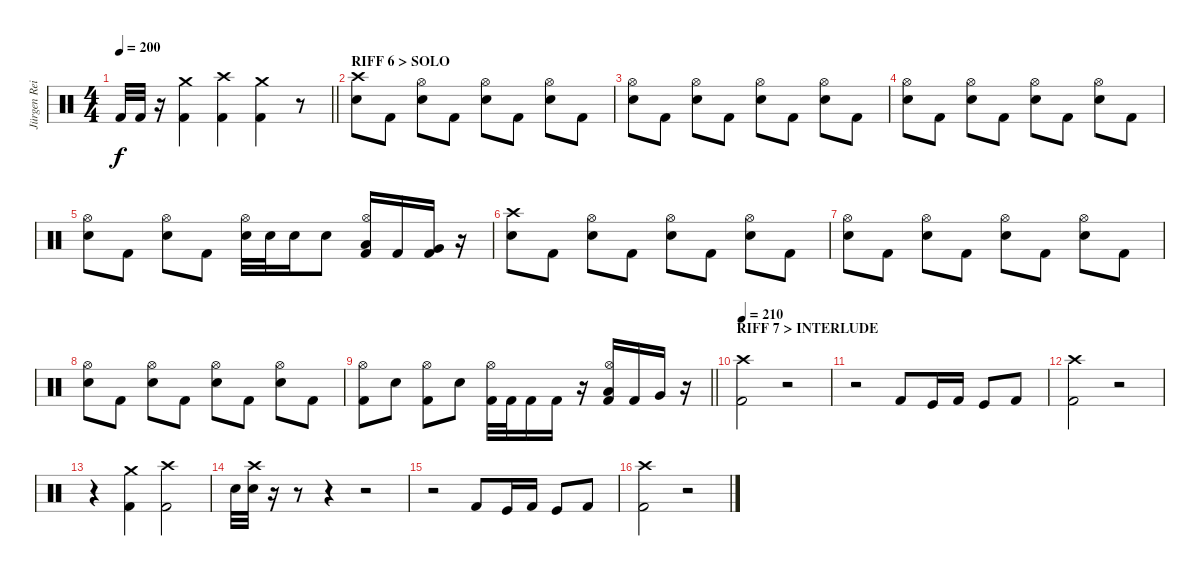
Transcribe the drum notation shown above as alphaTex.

\track ("Jürgen Reil" "Jürgen Rei") {instrument percussion}
\staff {score}
\articulation defaults
\ts (4 4)
\tempo 200
\clef neutral
\barLineRight lightlight
\ks c "Kick (hit) 2".32{dy f} "Kick (hit) 2".32
r.16 ("Crash medium (hit)" "Kick (hit) 2").4 ("Crash high (hit)" "Kick (hit) 2").4 ("Crash medium (hit)" "Kick (hit) 2").4 r.8 |
\section ("" "RIFF 6 > SOLO")
("Crash high (hit)" "Electric Snare (hit)").8 "Kick (hit) 2".8 ("Hi-Hat (open)" "Electric Snare (hit)").8 "Kick (hit) 2".8 ("Hi-Hat (open)" "Electric Snare (hit)").8 "Kick (hit) 2".8 ("Hi-Hat (open)" "Electric Snare (hit)").8 "Kick (hit) 2".8 |
("Hi-Hat (open)" "Electric Snare (hit)").8 "Kick (hit) 2".8 ("Hi-Hat (open)" "Electric Snare (hit)").8 "Kick (hit) 2".8 ("Hi-Hat (open)" "Electric Snare (hit)").8 "Kick (hit) 2".8 ("Hi-Hat (open)" "Electric Snare (hit)").8 "Kick (hit) 2".8 |
("Hi-Hat (open)" "Electric Snare (hit)").8 "Kick (hit) 2".8 ("Hi-Hat (open)" "Electric Snare (hit)").8 "Kick (hit) 2".8 ("Hi-Hat (open)" "Electric Snare (hit)").8 "Kick (hit) 2".8 ("Hi-Hat (open)" "Electric Snare (hit)").8 "Kick (hit) 2".8 |
("Hi-Hat (open)" "Electric Snare (hit)").8 "Kick (hit) 2".8 ("Hi-Hat (open)" "Electric Snare (hit)").8 "Kick (hit) 2".8 ("Hi-Hat (open)" "Electric Snare (hit)").32 "Electric Snare (hit)".32 "Electric Snare (hit)".16 "Electric Snare (hit)".8 ("Hi-Hat (open)" "Low Tom (hit)" "Kick (hit) 2").16 "Kick (hit) 2".16 ("Very Low Tom (hit)" "Kick (hit) 2").16 r.16 |
("Crash high (hit)" "Electric Snare (hit)").8 "Kick (hit) 2".8 ("Hi-Hat (open)" "Electric Snare (hit)").8 "Kick (hit) 2".8 ("Hi-Hat (open)" "Electric Snare (hit)").8 "Kick (hit) 2".8 ("Hi-Hat (open)" "Electric Snare (hit)").8 "Kick (hit) 2".8 |
("Hi-Hat (open)" "Electric Snare (hit)").8 "Kick (hit) 2".8 ("Hi-Hat (open)" "Electric Snare (hit)").8 "Kick (hit) 2".8 ("Hi-Hat (open)" "Electric Snare (hit)").8 "Kick (hit) 2".8 ("Hi-Hat (open)" "Electric Snare (hit)").8 "Kick (hit) 2".8 |
("Hi-Hat (open)" "Electric Snare (hit)").8 "Kick (hit) 2".8 ("Hi-Hat (open)" "Electric Snare (hit)").8 "Kick (hit) 2".8 ("Hi-Hat (open)" "Electric Snare (hit)").8 "Kick (hit) 2".8 ("Hi-Hat (open)" "Electric Snare (hit)").8 "Kick (hit) 2".8 |
\barLineRight lightlight
("Hi-Hat (open)" "Kick (hit) 2").8 "Electric Snare (hit)".8 ("Hi-Hat (open)" "Kick (hit) 2").8 "Electric Snare (hit)".8 ("Hi-Hat (open)" "Kick (hit) 2").32 "Kick (hit) 2".32 "Kick (hit) 2".16 "Kick (hit) 2".16 r.16 ("Hi-Hat (open)" "Low Tom (hit)" "Kick (hit) 2").16 "Kick (hit) 2".16 "Very Low Tom (hit)".16 r.16 |
\section ("" "RIFF 7 > INTERLUDE")
\tempo 210
("Crash high (hit)" "Kick (hit) 2").2 r.2 |
r.2 "Kick (hit) 2".8 "Kick (hit)".16 "Kick (hit) 2".16 "Kick (hit)".8 "Kick (hit) 2".8 |
("Crash high (hit)" "Kick (hit) 2").2 r.2 |
r.4 ("Crash medium (hit)" "Kick (hit) 2").4 ("Crash high (hit)" "Kick (hit) 2").2 |
"Electric Snare (hit)".32 ("Crash high (hit)" "Electric Snare (hit)").32 r.16 r.8 r.4 r.2 |
r.2 "Kick (hit) 2".8 "Kick (hit)".16 "Kick (hit) 2".16 "Kick (hit)".8 "Kick (hit) 2".8 |
("Crash high (hit)" "Kick (hit) 2").2 r.2
